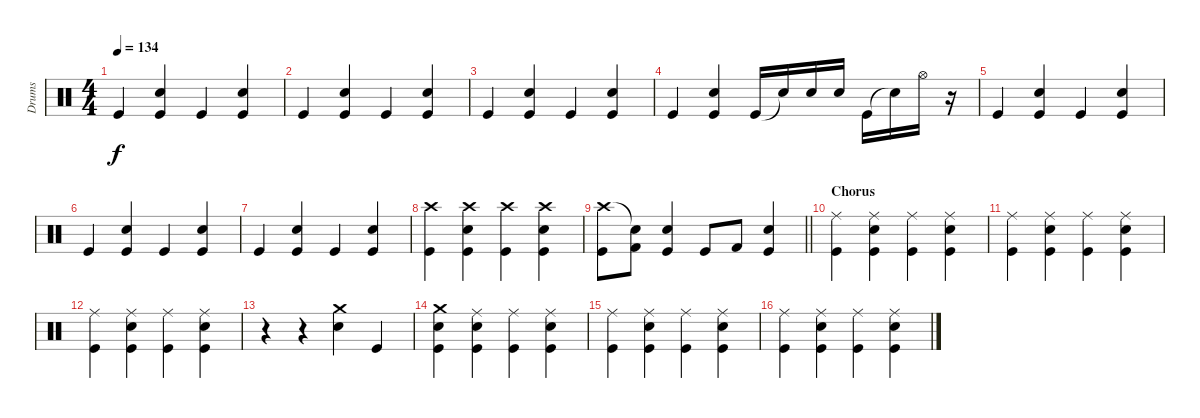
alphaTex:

\track ("Drums" "Drums") {instrument percussion}
\staff {score}
\articulation defaults
\ts (4 4)
\tempo 134
\clef neutral
\ks c "Kick (hit)".4{dy f}
("Kick (hit)" "Snare (hit) 2").4 "Kick (hit)".4 ("Kick (hit)" "Snare (hit) 2").4 |
"Kick (hit)".4 ("Kick (hit)" "Snare (hit) 2").4 "Kick (hit)".4 ("Kick (hit)" "Snare (hit) 2").4 |
"Kick (hit)".4 ("Kick (hit)" "Snare (hit) 2").4 "Kick (hit)".4 ("Kick (hit)" "Snare (hit) 2").4 |
"Kick (hit)".4 ("Kick (hit)" "Snare (hit) 2").4 "Kick (hit)".16 "Snare (hit) 2"{t}.16 "Snare (hit) 2".16 "Snare (hit) 2".16 "Kick (hit)".16 "Snare (hit)"{t}.16 "Hi-Hat (open)".16 r.16 |
"Kick (hit)".4 ("Kick (hit)" "Snare (hit) 2").4 "Kick (hit)".4 ("Kick (hit)" "Snare (hit) 2").4 |
"Kick (hit)".4 ("Kick (hit)" "Snare (hit) 2").4 "Kick (hit)".4 ("Kick (hit)" "Snare (hit) 2").4 |
"Kick (hit)".4 ("Kick (hit)" "Snare (hit) 2").4 "Kick (hit)".4 ("Kick (hit)" "Snare (hit) 2").4 |
("Crash high (hit)" "Kick (hit)").4 ("Crash high (hit)" "Kick (hit)" "Snare (hit) 2").4 ("Crash high (hit)" "Kick (hit)").4 ("Crash high (hit)" "Kick (hit)" "Snare (hit) 2").4 |
\barLineRight lightlight
("Crash high (hit)" "Kick (hit)").8 ("Snare (hit)"{t} "Kick (hit) 2").8 ("Kick (hit)" "Snare (hit) 2").4 "Kick (hit)".8 "Kick (hit) 2".8 ("Kick (hit)" "Snare (hit) 2").4 |
\section ("" "Chorus")
("Ride (middle)" "Kick (hit)").4 ("Ride (middle)" "Kick (hit)" "Snare (hit) 2").4 ("Ride (middle)" "Kick (hit)").4 ("Ride (middle)" "Kick (hit)" "Snare (hit) 2").4 |
("Ride (middle)" "Kick (hit)").4 ("Ride (middle)" "Kick (hit)" "Snare (hit) 2").4 ("Ride (middle)" "Kick (hit)").4 ("Ride (middle)" "Kick (hit)" "Snare (hit) 2").4 |
("Ride (middle)" "Kick (hit)").4 ("Ride (middle)" "Kick (hit)" "Snare (hit) 2").4 ("Ride (middle)" "Kick (hit)").4 ("Ride (middle)" "Kick (hit)" "Snare (hit) 2").4 |
r.4 r.4 ("Crash medium (hit)" "Snare (hit) 2").4 "Kick (hit)".4 |
("Crash medium (hit)" "Snare (hit) 2" "Kick (hit)").4 ("Ride (middle)" "Kick (hit)" "Snare (hit) 2").4 ("Ride (middle)" "Kick (hit)").4 ("Ride (middle)" "Kick (hit)" "Snare (hit) 2").4 |
("Ride (middle)" "Kick (hit)").4 ("Ride (middle)" "Kick (hit)" "Snare (hit) 2").4 ("Ride (middle)" "Kick (hit)").4 ("Ride (middle)" "Kick (hit)" "Snare (hit) 2").4 |
("Ride (middle)" "Kick (hit)").4 ("Ride (middle)" "Kick (hit)" "Snare (hit) 2").4 ("Ride (middle)" "Kick (hit)").4 ("Ride (middle)" "Kick (hit)" "Snare (hit) 2").4
